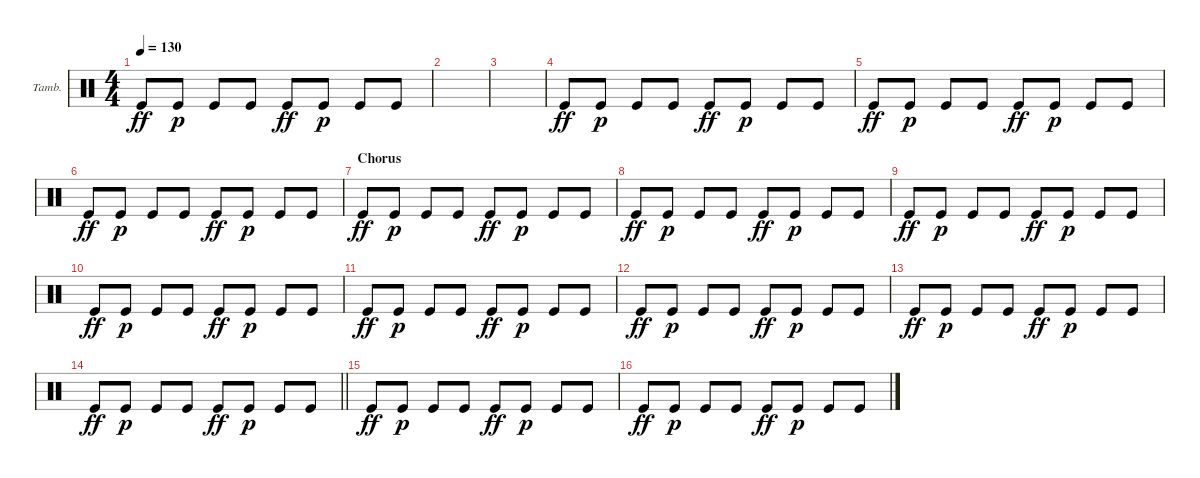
\bracketExtendMode groupsimilarinstruments
\firstSystemTrackNameOrientation horizontal
\otherSystemsTrackNameOrientation horizontal
\track ("Tambourine" "Tamb.") {instrument percussion}
\staff {score}
\articulation defaults
\ts (4 4)
\tempo 130
\clef neutral
\ks c "Kick (hit)".8{dy ff} "Kick (hit)".8{dy p} "Kick (hit)".8 "Kick (hit)".8 "Kick (hit)".8{dy ff} "Kick (hit)".8{dy p} "Kick (hit)".8 "Kick (hit)".8
|
|
|
"Kick (hit)".8{dy ff} "Kick (hit)".8{dy p} "Kick (hit)".8 "Kick (hit)".8 "Kick (hit)".8{dy ff} "Kick (hit)".8{dy p} "Kick (hit)".8 "Kick (hit)".8 |
"Kick (hit)".8{dy ff} "Kick (hit)".8{dy p} "Kick (hit)".8 "Kick (hit)".8 "Kick (hit)".8{dy ff} "Kick (hit)".8{dy p} "Kick (hit)".8 "Kick (hit)".8 |
"Kick (hit)".8{dy ff} "Kick (hit)".8{dy p} "Kick (hit)".8 "Kick (hit)".8 "Kick (hit)".8{dy ff} "Kick (hit)".8{dy p} "Kick (hit)".8 "Kick (hit)".8 |
\section ("" "Chorus")
"Kick (hit)".8{dy ff} "Kick (hit)".8{dy p} "Kick (hit)".8 "Kick (hit)".8 "Kick (hit)".8{dy ff} "Kick (hit)".8{dy p} "Kick (hit)".8 "Kick (hit)".8 |
"Kick (hit)".8{dy ff} "Kick (hit)".8{dy p} "Kick (hit)".8 "Kick (hit)".8 "Kick (hit)".8{dy ff} "Kick (hit)".8{dy p} "Kick (hit)".8 "Kick (hit)".8 |
"Kick (hit)".8{dy ff} "Kick (hit)".8{dy p} "Kick (hit)".8 "Kick (hit)".8 "Kick (hit)".8{dy ff} "Kick (hit)".8{dy p} "Kick (hit)".8 "Kick (hit)".8 |
"Kick (hit)".8{dy ff} "Kick (hit)".8{dy p} "Kick (hit)".8 "Kick (hit)".8 "Kick (hit)".8{dy ff} "Kick (hit)".8{dy p} "Kick (hit)".8 "Kick (hit)".8 |
"Kick (hit)".8{dy ff} "Kick (hit)".8{dy p} "Kick (hit)".8 "Kick (hit)".8 "Kick (hit)".8{dy ff} "Kick (hit)".8{dy p} "Kick (hit)".8 "Kick (hit)".8 |
"Kick (hit)".8{dy ff} "Kick (hit)".8{dy p} "Kick (hit)".8 "Kick (hit)".8 "Kick (hit)".8{dy ff} "Kick (hit)".8{dy p} "Kick (hit)".8 "Kick (hit)".8 |
"Kick (hit)".8{dy ff} "Kick (hit)".8{dy p} "Kick (hit)".8 "Kick (hit)".8 "Kick (hit)".8{dy ff} "Kick (hit)".8{dy p} "Kick (hit)".8 "Kick (hit)".8 |
\barLineRight lightlight "Kick (hit)".8{dy ff} "Kick (hit)".8{dy p} "Kick (hit)".8 "Kick (hit)".8 "Kick (hit)".8{dy ff} "Kick (hit)".8{dy p} "Kick (hit)".8 "Kick (hit)".8
|
"Kick (hit)".8{dy ff} "Kick (hit)".8{dy p} "Kick (hit)".8 "Kick (hit)".8 "Kick (hit)".8{dy ff} "Kick (hit)".8{dy p} "Kick (hit)".8 "Kick (hit)".8 |
"Kick (hit)".8{dy ff} "Kick (hit)".8{dy p} "Kick (hit)".8 "Kick (hit)".8 "Kick (hit)".8{dy ff} "Kick (hit)".8{dy p} "Kick (hit)".8 "Kick (hit)".8
